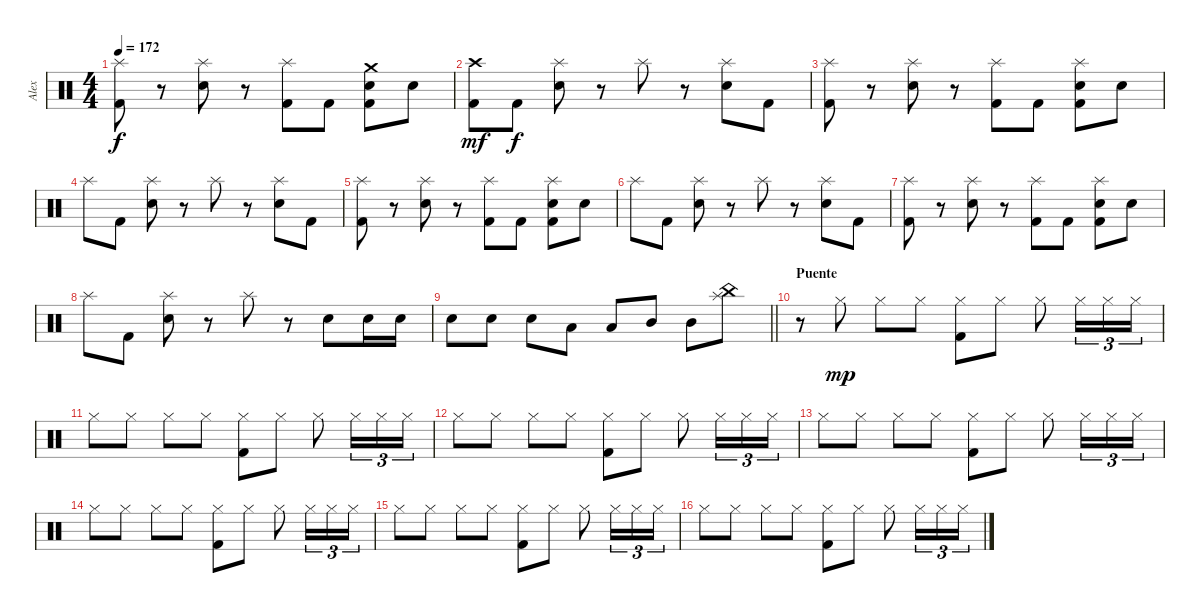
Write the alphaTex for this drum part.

\track ("Alex" "Alex") {instrument percussion}
\staff {score}
\articulation defaults
\ts (4 4)
\tempo 172
\clef neutral
\ks c
("Splash (hit)" "Kick (hit) 2").8{dy f} r.8 ("Splash (hit)" "Electric Snare (hit)").8 r.8 ("Splash (hit)" "Kick (hit) 2").8 "Kick (hit) 2".8 ("Crash medium (hit)" "Electric Snare (hit)" "Kick (hit) 2").8 "Electric Snare (hit)".8 |
("Crash high (hit)" "Kick (hit) 2").8{dy mf} "Kick (hit) 2".8{dy f} ("Splash (hit)" "Electric Snare (hit)").8 r.8 "Splash (hit)".8 r.8 ("Splash (hit)" "Electric Snare (hit)").8 "Kick (hit) 2".8 |
("Splash (hit)" "Kick (hit) 2").8 r.8 ("Splash (hit)" "Electric Snare (hit)").8 r.8 ("Splash (hit)" "Kick (hit) 2").8 "Kick (hit) 2".8 ("Splash (hit)" "Electric Snare (hit)" "Kick (hit) 2").8 "Electric Snare (hit)".8 |
"Splash (hit)".8 "Kick (hit) 2".8 ("Splash (hit)" "Electric Snare (hit)").8 r.8 "Splash (hit)".8 r.8 ("Splash (hit)" "Electric Snare (hit)").8 "Kick (hit) 2".8 |
("Splash (hit)" "Kick (hit) 2").8 r.8 ("Splash (hit)" "Electric Snare (hit)").8 r.8 ("Splash (hit)" "Kick (hit) 2").8 "Kick (hit) 2".8 ("Splash (hit)" "Electric Snare (hit)" "Kick (hit) 2").8 "Electric Snare (hit)".8 |
"Splash (hit)".8 "Kick (hit) 2".8 ("Splash (hit)" "Electric Snare (hit)").8 r.8 "Splash (hit)".8 r.8 ("Splash (hit)" "Electric Snare (hit)").8 "Kick (hit) 2".8 |
("Splash (hit)" "Kick (hit) 2").8 r.8 ("Splash (hit)" "Electric Snare (hit)").8 r.8 ("Splash (hit)" "Kick (hit) 2").8 "Kick (hit) 2".8 ("Splash (hit)" "Electric Snare (hit)" "Kick (hit) 2").8 "Electric Snare (hit)".8 |
"Splash (hit)".8 "Kick (hit) 2".8 ("Splash (hit)" "Electric Snare (hit)").8 r.8 "Splash (hit)".8 r.8 "Electric Snare (hit)".8 "Electric Snare (hit)".16 "Electric Snare (hit)".16 |
\barLineRight lightlight "Electric Snare (hit)".8 "Electric Snare (hit)".8 "Electric Snare (hit)".8 "Low Tom (hit)".8 "Low Tom (hit)".8 "Mid Tom (hit)".8 "Mid Tom (hit)".8
("China (hit)" "Splash (hit)").8 |
\section ("" "Puente")
r.8 "Hi-Hat (closed)".8{dy mp} "Hi-Hat (closed)".8 "Hi-Hat (closed)".8 ("Hi-Hat (closed)" "Kick (hit) 2").8 "Hi-Hat (closed)".8 "Hi-Hat (closed)".8 "Hi-Hat (closed)".16{tu (3 2)} "Hi-Hat (closed)".16{tu (3 2)} "Hi-Hat (closed)".16{tu (3 2)} |
"Hi-Hat (closed)".8 "Hi-Hat (closed)".8 "Hi-Hat (closed)".8 "Hi-Hat (closed)".8 ("Hi-Hat (closed)" "Kick (hit) 2").8 "Hi-Hat (closed)".8 "Hi-Hat (closed)".8 "Hi-Hat (closed)".16{tu (3 2)} "Hi-Hat (closed)".16{tu (3 2)} "Hi-Hat (closed)".16{tu (3 2)} |
"Hi-Hat (closed)".8 "Hi-Hat (closed)".8 "Hi-Hat (closed)".8 "Hi-Hat (closed)".8 ("Hi-Hat (closed)" "Kick (hit) 2").8 "Hi-Hat (closed)".8 "Hi-Hat (closed)".8 "Hi-Hat (closed)".16{tu (3 2)} "Hi-Hat (closed)".16{tu (3 2)} "Hi-Hat (closed)".16{tu (3 2)} |
"Hi-Hat (closed)".8 "Hi-Hat (closed)".8 "Hi-Hat (closed)".8 "Hi-Hat (closed)".8 ("Hi-Hat (closed)" "Kick (hit) 2").8 "Hi-Hat (closed)".8 "Hi-Hat (closed)".8 "Hi-Hat (closed)".16{tu (3 2)} "Hi-Hat (closed)".16{tu (3 2)} "Hi-Hat (closed)".16{tu (3 2)} |
"Hi-Hat (closed)".8 "Hi-Hat (closed)".8 "Hi-Hat (closed)".8 "Hi-Hat (closed)".8 ("Hi-Hat (closed)" "Kick (hit) 2").8 "Hi-Hat (closed)".8 "Hi-Hat (closed)".8 "Hi-Hat (closed)".16{tu (3 2)} "Hi-Hat (closed)".16{tu (3 2)} "Hi-Hat (closed)".16{tu (3 2)} |
"Hi-Hat (closed)".8 "Hi-Hat (closed)".8 "Hi-Hat (closed)".8 "Hi-Hat (closed)".8 ("Hi-Hat (closed)" "Kick (hit) 2").8 "Hi-Hat (closed)".8 "Hi-Hat (closed)".8 "Hi-Hat (closed)".16{tu (3 2)} "Hi-Hat (closed)".16{tu (3 2)} "Hi-Hat (closed)".16{tu (3 2)} |
"Hi-Hat (closed)".8 "Hi-Hat (closed)".8 "Hi-Hat (closed)".8 "Hi-Hat (closed)".8 ("Hi-Hat (closed)" "Kick (hit) 2").8 "Hi-Hat (closed)".8 "Hi-Hat (closed)".8 "Hi-Hat (closed)".16{tu (3 2)} "Hi-Hat (closed)".16{tu (3 2)} "Hi-Hat (closed)".16{tu (3 2)}
